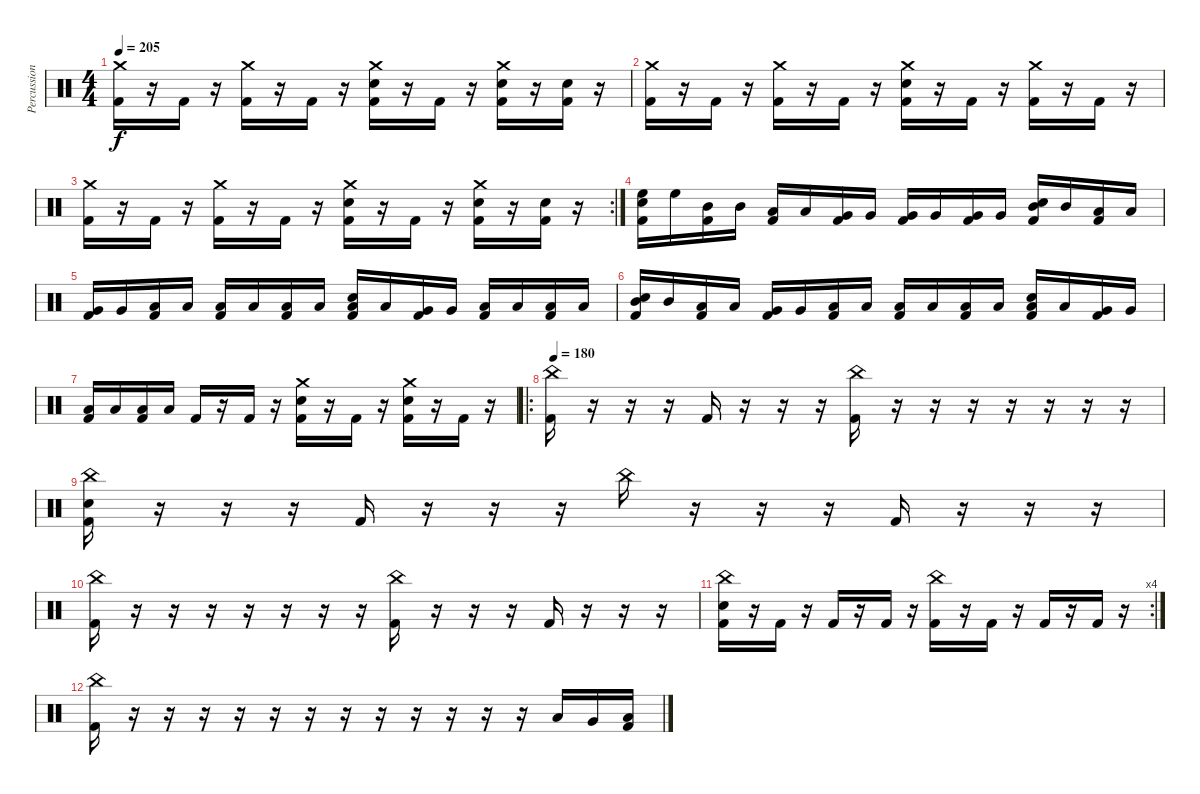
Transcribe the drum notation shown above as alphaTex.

\track ("Percussion" "Percussion") {instrument percussion}
\staff {score}
\articulation defaults
\ts (4 4)
\tempo 205
\clef neutral
\ks c
("Crash medium (hit)" "Kick (hit) 2").16{dy f} r.16 "Kick (hit) 2".16 r.16 ("Crash medium (hit)" "Kick (hit) 2").16 r.16 "Kick (hit) 2".16 r.16 ("Electric Snare (hit)" "Crash medium (hit)" "Kick (hit) 2").16 r.16 "Kick (hit) 2".16 r.16 ("Electric Snare (hit)" "Crash medium (hit)" "Kick (hit) 2").16 r.16 ("Electric Snare (hit)" "Kick (hit) 2").16 r.16 |
("Crash medium (hit)" "Kick (hit) 2").16 r.16 "Kick (hit) 2".16 r.16 ("Crash medium (hit)" "Kick (hit) 2").16 r.16 "Kick (hit) 2".16 r.16 ("Electric Snare (hit)" "Crash medium (hit)" "Kick (hit) 2").16 r.16 "Kick (hit) 2".16 r.16 ("Crash medium (hit)" "Kick (hit) 2").16 r.16 "Kick (hit) 2".16 r.16 |
\rc 2
("Crash medium (hit)" "Kick (hit) 2").16 r.16 "Kick (hit) 2".16 r.16 ("Crash medium (hit)" "Kick (hit) 2").16 r.16 "Kick (hit) 2".16 r.16 ("Electric Snare (hit)" "Crash medium (hit)" "Kick (hit) 2").16 r.16 "Kick (hit) 2".16 r.16 ("Electric Snare (hit)" "Crash medium (hit)" "Kick (hit) 2").16 r.16 ("Electric Snare (hit)" "Kick (hit) 2").16 r.16 |
("High Floor Tom (hit)" "Electric Snare (hit)" "Kick (hit) 2").16 "High Floor Tom (hit)".16 ("Mid Tom (hit)" "Kick (hit) 2").16 "Mid Tom (hit)".16 ("Low Tom (hit)" "Kick (hit) 2").16 "Low Tom (hit)".16 ("Very Low Tom (hit)" "Kick (hit) 2").16 "Very Low Tom (hit)".16 ("Very Low Tom (hit)" "Kick (hit) 2").16 "Very Low Tom (hit)".16 ("Very Low Tom (hit)" "Kick (hit) 2").16 "Very Low Tom (hit)".16 ("Mid Tom (hit)" "Electric Snare (hit)" "Kick (hit) 2").16 "Mid Tom (hit)".16 ("Low Tom (hit)" "Kick (hit) 2").16 "Low Tom (hit)".16 |
("Very Low Tom (hit)" "Kick (hit) 2").16 "Very Low Tom (hit)".16 ("Low Floor Tom (hit)" "Kick (hit) 2").16 "Low Floor Tom (hit)".16 ("Low Floor Tom (hit)" "Kick (hit) 2").16 "Low Floor Tom (hit)".16 ("Low Floor Tom (hit)" "Kick (hit) 2").16 "Low Floor Tom (hit)".16 ("Low Tom (hit)" "Electric Snare (hit)" "Kick (hit) 2").16 "Low Tom (hit)".16 ("Very Low Tom (hit)" "Kick (hit) 2").16 "Very Low Tom (hit)".16 ("Low Floor Tom (hit)" "Kick (hit) 2").16 "Low Floor Tom (hit)".16 ("Low Floor Tom (hit)" "Kick (hit) 2").16 "Low Floor Tom (hit)".16 |
("Mid Tom (hit)" "Electric Snare (hit)" "Kick (hit) 2").16 "Mid Tom (hit)".16 ("Low Tom (hit)" "Kick (hit) 2").16 "Low Tom (hit)".16 ("Very Low Tom (hit)" "Kick (hit) 2").16 "Very Low Tom (hit)".16 ("Low Floor Tom (hit)" "Kick (hit) 2").16 "Low Floor Tom (hit)".16 ("Low Floor Tom (hit)" "Kick (hit) 2").16 "Low Floor Tom (hit)".16 ("Low Floor Tom (hit)" "Kick (hit) 2").16 "Low Floor Tom (hit)".16 ("Low Tom (hit)" "Electric Snare (hit)" "Kick (hit) 2").16 "Low Tom (hit)".16 ("Very Low Tom (hit)" "Kick (hit) 2").16 "Very Low Tom (hit)".16 |
("Low Floor Tom (hit)" "Kick (hit) 2").16 "Low Floor Tom (hit)".16 ("Low Floor Tom (hit)" "Kick (hit) 2").16 "Low Floor Tom (hit)".16 "Kick (hit) 2".16 r.16 "Kick (hit) 2".16 r.16 ("Electric Snare (hit)" "Crash medium (hit)" "Kick (hit) 2").16 r.16 "Kick (hit) 2".16 r.16 ("Electric Snare (hit)" "Crash medium (hit)" "Kick (hit) 2").16 r.16 "Kick (hit) 2".16 r.16 |
\ro
\tempo 180
("China (hit)" "Kick (hit) 2").16 r.16 r.16 r.16 "Kick (hit) 2".16 r.16 r.16 r.16 ("China (hit)" "Kick (hit) 2").16 r.16 r.16 r.16 r.16 r.16 r.16 r.16 |
("Electric Snare (hit)" "China (hit)" "Kick (hit) 2").16 r.16 r.16 r.16 "Kick (hit) 2".16 r.16 r.16 r.16 "China (hit)".16 r.16 r.16 r.16 "Kick (hit) 2".16 r.16 r.16 r.16 |
("China (hit)" "Kick (hit) 2").16 r.16 r.16 r.16 r.16 r.16 r.16 r.16 ("China (hit)" "Kick (hit) 2").16 r.16 r.16 r.16 "Kick (hit) 2".16 r.16 r.16 r.16 |
\rc 4
("Electric Snare (hit)" "China (hit)" "Kick (hit) 2").16 r.16 "Kick (hit) 2".16 r.16 "Kick (hit) 2".16 r.16 "Kick (hit) 2".16 r.16 ("China (hit)" "Kick (hit) 2").16 r.16 "Kick (hit) 2".16 r.16 "Kick (hit) 2".16 r.16 "Kick (hit) 2".16 r.16 |
("China (hit)" "Kick (hit) 2").16 r.16 r.16 r.16 r.16 r.16 r.16 r.16 r.16 r.16 r.16 r.16 r.16 "Low Tom (hit)".16 "Very Low Tom (hit)".16 ("Low Floor Tom (hit)" "Kick (hit) 2").16
